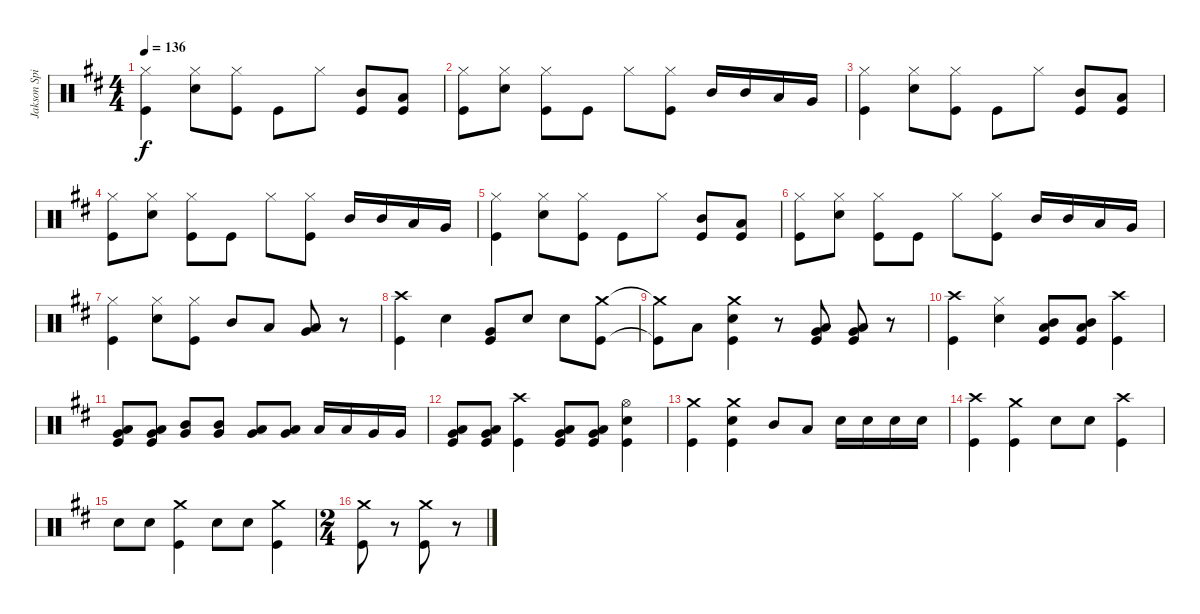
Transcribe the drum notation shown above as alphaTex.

\track ("Jakson Spires Drums" "Jakson Spi") {instrument percussion}
\staff {score}
\articulation defaults
\ts (4 4)
\tempo 136
\clef neutral
\ks d
("Hi-Hat (closed)" "Kick (hit)").4{dy f} ("Hi-Hat (closed)" "Snare (hit) 2").8 ("Hi-Hat (closed)" "Kick (hit)").8 "Kick (hit)".8 "Hi-Hat (closed)".8 ("Mid Tom (hit)" "Kick (hit)").8 ("Low Tom (hit)" "Kick (hit)").8 |
("Hi-Hat (closed)" "Kick (hit)").8 ("Hi-Hat (closed)" "Snare (hit) 2").8 ("Hi-Hat (closed)" "Kick (hit)").8 "Kick (hit)".8 "Hi-Hat (closed)".8 ("Hi-Hat (closed)" "Kick (hit)").8 "Mid Tom (hit)".16 "Mid Tom (hit)".16 "Low Tom (hit)".16 "Very Low Tom (hit)".16 |
("Hi-Hat (closed)" "Kick (hit)").4 ("Hi-Hat (closed)" "Snare (hit) 2").8 ("Hi-Hat (closed)" "Kick (hit)").8 "Kick (hit)".8 "Hi-Hat (closed)".8 ("Mid Tom (hit)" "Kick (hit)").8 ("Low Tom (hit)" "Kick (hit)").8 |
("Hi-Hat (closed)" "Kick (hit)").8 ("Hi-Hat (closed)" "Snare (hit) 2").8 ("Hi-Hat (closed)" "Kick (hit)").8 "Kick (hit)".8 "Hi-Hat (closed)".8 ("Hi-Hat (closed)" "Kick (hit)").8 "Mid Tom (hit)".16 "Mid Tom (hit)".16 "Low Tom (hit)".16 "Very Low Tom (hit)".16 |
("Hi-Hat (closed)" "Kick (hit)").4 ("Hi-Hat (closed)" "Snare (hit) 2").8 ("Hi-Hat (closed)" "Kick (hit)").8 "Kick (hit)".8 "Hi-Hat (closed)".8 ("Mid Tom (hit)" "Kick (hit)").8 ("Low Tom (hit)" "Kick (hit)").8 |
("Hi-Hat (closed)" "Kick (hit)").8 ("Hi-Hat (closed)" "Snare (hit) 2").8 ("Hi-Hat (closed)" "Kick (hit)").8 "Kick (hit)".8 "Hi-Hat (closed)".8 ("Hi-Hat (closed)" "Kick (hit)").8 "Mid Tom (hit)".16 "Mid Tom (hit)".16 "Low Tom (hit)".16 "Very Low Tom (hit)".16 |
("Hi-Hat (closed)" "Kick (hit)").4 ("Hi-Hat (closed)" "Snare (hit) 2").8 ("Hi-Hat (closed)" "Kick (hit)").8 "Mid Tom (hit)".8 "Low Tom (hit)".8 ("Very Low Tom (hit)" "Low Floor Tom (hit)").8 r.8 |
("Crash high (hit)" "Kick (hit)").4 "Snare (hit) 2".4 ("Very Low Tom (hit)" "Kick (hit)").8 "Snare (hit) 2".8 "Snare (hit) 2".8 ("Crash medium (hit)" "Kick (hit)").8 |
("Crash medium (hit)"{t} "Kick (hit)"{t}).8 "Low Tom (hit)".8 ("Crash medium (hit)" "Snare (hit) 2" "Kick (hit)").4 r.8 ("Very Low Tom (hit)" "Low Floor Tom (hit)" "Kick (hit)").8 ("Very Low Tom (hit)" "Low Floor Tom (hit)" "Kick (hit)").8 r.8 |
("Crash high (hit)" "Kick (hit)").4 ("Hi-Hat (closed)" "Snare (hit) 2").4 ("Mid Tom (hit)" "Low Tom (hit)" "Kick (hit)").8 ("Mid Tom (hit)" "Low Tom (hit)" "Kick (hit)").8 ("Crash high (hit)" "Kick (hit)").4 |
("Very Low Tom (hit)" "Low Floor Tom (hit)" "Kick (hit)").8 ("Very Low Tom (hit)" "Low Floor Tom (hit)" "Kick (hit)").8 ("Mid Tom (hit)" "Very Low Tom (hit)").8 ("Mid Tom (hit)" "Very Low Tom (hit)").8 ("Low Tom (hit)" "Very Low Tom (hit)").8 ("Low Tom (hit)" "Very Low Tom (hit)").8 "Low Tom (hit)".16 "Low Tom (hit)".16 "Very Low Tom (hit)".16 "Very Low Tom (hit)".16 |
("Low Tom (hit)" "Very Low Tom (hit)" "Kick (hit)").8 ("Low Tom (hit)" "Very Low Tom (hit)" "Kick (hit)").8 ("Crash high (hit)" "Kick (hit)").4 ("Very Low Tom (hit)" "Low Floor Tom (hit)" "Kick (hit)").8 ("Very Low Tom (hit)" "Low Floor Tom (hit)" "Kick (hit)").8 ("Hi-Hat (open)" "Snare (hit) 2" "Kick (hit)").4 |
("Crash medium (hit)" "Kick (hit)").4 ("Crash medium (hit)" "Snare (hit) 2" "Kick (hit)").4 "Mid Tom (hit)".8 "Low Tom (hit)".8 "Snare (hit) 2".16 "Snare (hit) 2".16 "Snare (hit) 2".16 "Snare (hit) 2".16 |
("Crash high (hit)" "Kick (hit)").4 ("Crash medium (hit)" "Kick (hit)").4 "Snare (hit) 2".8 "Snare (hit) 2".8 ("Crash high (hit)" "Kick (hit)").4 |
"Snare (hit) 2".8 "Snare (hit) 2".8 ("Crash medium (hit)" "Kick (hit)").4 "Snare (hit) 2".8 "Snare (hit) 2".8 ("Crash medium (hit)" "Kick (hit)").4 |
\ts (2 4)
("Crash medium (hit)" "Kick (hit)").8 r.8 ("Crash medium (hit)" "Kick (hit)").8 r.8
